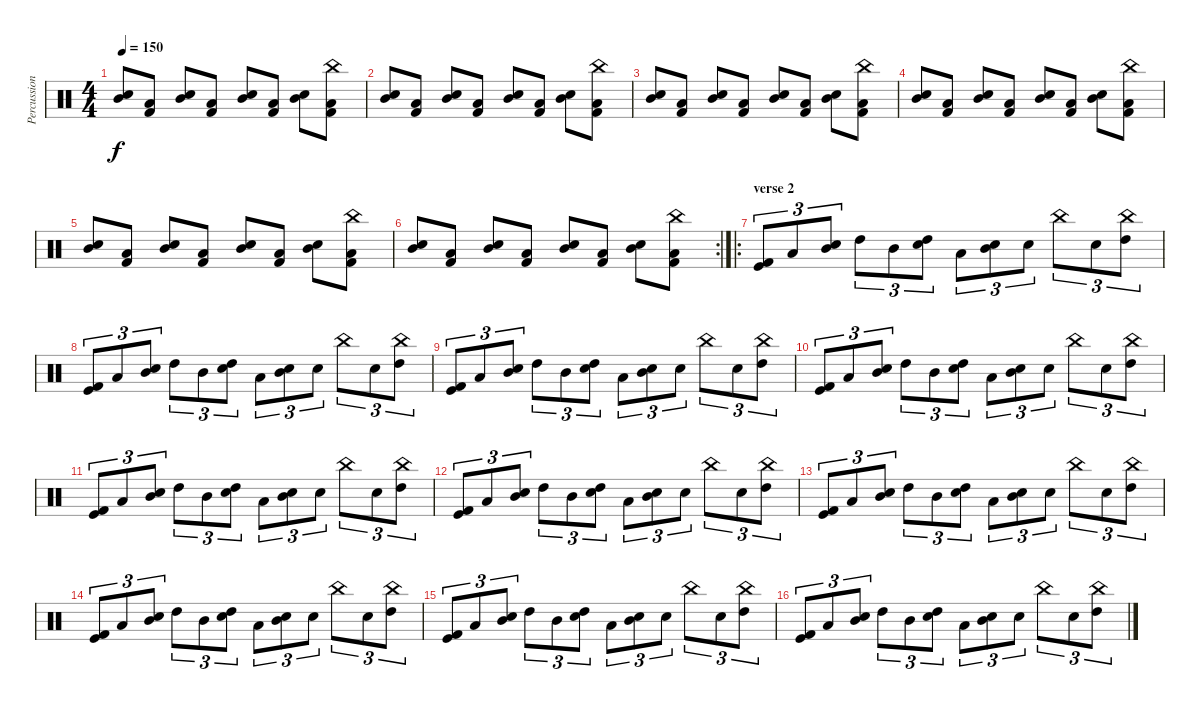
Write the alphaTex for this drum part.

\track ("Percussion" "Percussion") {instrument percussion}
\staff {score}
\articulation defaults
\ts (4 4)
\tempo 150
\clef neutral
\ks c
("Snare (hit) 2" "Mid Tom (hit)").8{dy f} ("Low Tom (hit)" "Kick (hit) 2").8 ("Snare (hit) 2" "Mid Tom (hit)").8 ("Low Tom (hit)" "Kick (hit) 2").8 ("Snare (hit) 2" "Mid Tom (hit)").8 ("Low Tom (hit)" "Kick (hit) 2").8 ("Snare (hit) 2" "Mid Tom (hit)").8 ("China (hit)" "Low Tom (hit)" "Kick (hit) 2").8 |
("Snare (hit) 2" "Mid Tom (hit)").8 ("Low Tom (hit)" "Kick (hit) 2").8 ("Snare (hit) 2" "Mid Tom (hit)").8 ("Low Tom (hit)" "Kick (hit) 2").8 ("Snare (hit) 2" "Mid Tom (hit)").8 ("Low Tom (hit)" "Kick (hit) 2").8 ("Snare (hit) 2" "Mid Tom (hit)").8 ("China (hit)" "Low Tom (hit)" "Kick (hit) 2").8 |
("Snare (hit) 2" "Mid Tom (hit)").8 ("Low Tom (hit)" "Kick (hit) 2").8 ("Snare (hit) 2" "Mid Tom (hit)").8 ("Low Tom (hit)" "Kick (hit) 2").8 ("Snare (hit) 2" "Mid Tom (hit)").8 ("Low Tom (hit)" "Kick (hit) 2").8 ("Snare (hit) 2" "Mid Tom (hit)").8 ("China (hit)" "Low Tom (hit)" "Kick (hit) 2").8 |
("Snare (hit) 2" "Mid Tom (hit)").8 ("Low Tom (hit)" "Kick (hit) 2").8 ("Snare (hit) 2" "Mid Tom (hit)").8 ("Low Tom (hit)" "Kick (hit) 2").8 ("Snare (hit) 2" "Mid Tom (hit)").8 ("Low Tom (hit)" "Kick (hit) 2").8 ("Snare (hit) 2" "Mid Tom (hit)").8 ("China (hit)" "Low Tom (hit)" "Kick (hit) 2").8 |
("Snare (hit) 2" "Mid Tom (hit)").8 ("Low Tom (hit)" "Kick (hit) 2").8 ("Snare (hit) 2" "Mid Tom (hit)").8 ("Low Tom (hit)" "Kick (hit) 2").8 ("Snare (hit) 2" "Mid Tom (hit)").8 ("Low Tom (hit)" "Kick (hit) 2").8 ("Snare (hit) 2" "Mid Tom (hit)").8 ("China (hit)" "Low Tom (hit)" "Kick (hit) 2").8 |
\rc 2
("Snare (hit) 2" "Mid Tom (hit)").8 ("Low Tom (hit)" "Kick (hit) 2").8 ("Snare (hit) 2" "Mid Tom (hit)").8 ("Low Tom (hit)" "Kick (hit) 2").8 ("Snare (hit) 2" "Mid Tom (hit)").8 ("Low Tom (hit)" "Kick (hit) 2").8 ("Snare (hit) 2" "Mid Tom (hit)").8 ("China (hit)" "Low Tom (hit)" "Kick (hit) 2").8 |
\ro
\section ("" "verse 2")
("Kick (hit) 2" "Kick (hit)").8{tu (3 2)} "Low Tom (hit)".8{tu (3 2)} ("Mid Tom (hit)" "Snare (hit) 2").8{tu (3 2)} "High Tom (hit)".8{tu (3 2)} "Mid Tom (hit)".8{tu (3 2)} ("High Tom (hit)" "Snare (hit) 2").8{tu (3 2)} "Low Tom (hit)".8{tu (3 2)} ("Mid Tom (hit)" "Snare (hit) 2").8{tu (3 2)} "Snare (hit) 2".8{tu (3 2)} "China (hit)".8{tu (3 2)} "Snare (hit) 2".8{tu (3 2)} ("High Tom (hit)" "China (hit)").8{tu (3 2)} |
("Kick (hit) 2" "Kick (hit)").8{tu (3 2)} "Low Tom (hit)".8{tu (3 2)} ("Mid Tom (hit)" "Snare (hit) 2").8{tu (3 2)} "High Tom (hit)".8{tu (3 2)} "Mid Tom (hit)".8{tu (3 2)} ("High Tom (hit)" "Snare (hit) 2").8{tu (3 2)} "Low Tom (hit)".8{tu (3 2)} ("Mid Tom (hit)" "Snare (hit) 2").8{tu (3 2)} "Snare (hit) 2".8{tu (3 2)} "China (hit)".8{tu (3 2)} "Snare (hit) 2".8{tu (3 2)} ("High Tom (hit)" "China (hit)").8{tu (3 2)} |
("Kick (hit) 2" "Kick (hit)").8{tu (3 2)} "Low Tom (hit)".8{tu (3 2)} ("Mid Tom (hit)" "Snare (hit) 2").8{tu (3 2)} "High Tom (hit)".8{tu (3 2)} "Mid Tom (hit)".8{tu (3 2)} ("High Tom (hit)" "Snare (hit) 2").8{tu (3 2)} "Low Tom (hit)".8{tu (3 2)} ("Mid Tom (hit)" "Snare (hit) 2").8{tu (3 2)} "Snare (hit) 2".8{tu (3 2)} "China (hit)".8{tu (3 2)} "Snare (hit) 2".8{tu (3 2)} ("High Tom (hit)" "China (hit)").8{tu (3 2)} |
("Kick (hit) 2" "Kick (hit)").8{tu (3 2)} "Low Tom (hit)".8{tu (3 2)} ("Mid Tom (hit)" "Snare (hit) 2").8{tu (3 2)} "High Tom (hit)".8{tu (3 2)} "Mid Tom (hit)".8{tu (3 2)} ("High Tom (hit)" "Snare (hit) 2").8{tu (3 2)} "Low Tom (hit)".8{tu (3 2)} ("Mid Tom (hit)" "Snare (hit) 2").8{tu (3 2)} "Snare (hit) 2".8{tu (3 2)} "China (hit)".8{tu (3 2)} "Snare (hit) 2".8{tu (3 2)} ("High Tom (hit)" "China (hit)").8{tu (3 2)} |
("Kick (hit) 2" "Kick (hit)").8{tu (3 2)} "Low Tom (hit)".8{tu (3 2)} ("Mid Tom (hit)" "Snare (hit) 2").8{tu (3 2)} "High Tom (hit)".8{tu (3 2)} "Mid Tom (hit)".8{tu (3 2)} ("High Tom (hit)" "Snare (hit) 2").8{tu (3 2)} "Low Tom (hit)".8{tu (3 2)} ("Mid Tom (hit)" "Snare (hit) 2").8{tu (3 2)} "Snare (hit) 2".8{tu (3 2)} "China (hit)".8{tu (3 2)} "Snare (hit) 2".8{tu (3 2)} ("High Tom (hit)" "China (hit)").8{tu (3 2)} |
("Kick (hit) 2" "Kick (hit)").8{tu (3 2)} "Low Tom (hit)".8{tu (3 2)} ("Mid Tom (hit)" "Snare (hit) 2").8{tu (3 2)} "High Tom (hit)".8{tu (3 2)} "Mid Tom (hit)".8{tu (3 2)} ("High Tom (hit)" "Snare (hit) 2").8{tu (3 2)} "Low Tom (hit)".8{tu (3 2)} ("Mid Tom (hit)" "Snare (hit) 2").8{tu (3 2)} "Snare (hit) 2".8{tu (3 2)} "China (hit)".8{tu (3 2)} "Snare (hit) 2".8{tu (3 2)} ("High Tom (hit)" "China (hit)").8{tu (3 2)} |
("Kick (hit) 2" "Kick (hit)").8{tu (3 2)} "Low Tom (hit)".8{tu (3 2)} ("Mid Tom (hit)" "Snare (hit) 2").8{tu (3 2)} "High Tom (hit)".8{tu (3 2)} "Mid Tom (hit)".8{tu (3 2)} ("High Tom (hit)" "Snare (hit) 2").8{tu (3 2)} "Low Tom (hit)".8{tu (3 2)} ("Mid Tom (hit)" "Snare (hit) 2").8{tu (3 2)} "Snare (hit) 2".8{tu (3 2)} "China (hit)".8{tu (3 2)} "Snare (hit) 2".8{tu (3 2)} ("High Tom (hit)" "China (hit)").8{tu (3 2)} |
("Kick (hit) 2" "Kick (hit)").8{tu (3 2)} "Low Tom (hit)".8{tu (3 2)} ("Mid Tom (hit)" "Snare (hit) 2").8{tu (3 2)} "High Tom (hit)".8{tu (3 2)} "Mid Tom (hit)".8{tu (3 2)} ("High Tom (hit)" "Snare (hit) 2").8{tu (3 2)} "Low Tom (hit)".8{tu (3 2)} ("Mid Tom (hit)" "Snare (hit) 2").8{tu (3 2)} "Snare (hit) 2".8{tu (3 2)} "China (hit)".8{tu (3 2)} "Snare (hit) 2".8{tu (3 2)} ("High Tom (hit)" "China (hit)").8{tu (3 2)} |
("Kick (hit) 2" "Kick (hit)").8{tu (3 2)} "Low Tom (hit)".8{tu (3 2)} ("Mid Tom (hit)" "Snare (hit) 2").8{tu (3 2)} "High Tom (hit)".8{tu (3 2)} "Mid Tom (hit)".8{tu (3 2)} ("High Tom (hit)" "Snare (hit) 2").8{tu (3 2)} "Low Tom (hit)".8{tu (3 2)} ("Mid Tom (hit)" "Snare (hit) 2").8{tu (3 2)} "Snare (hit) 2".8{tu (3 2)} "China (hit)".8{tu (3 2)} "Snare (hit) 2".8{tu (3 2)} ("High Tom (hit)" "China (hit)").8{tu (3 2)} |
("Kick (hit) 2" "Kick (hit)").8{tu (3 2)} "Low Tom (hit)".8{tu (3 2)} ("Mid Tom (hit)" "Snare (hit) 2").8{tu (3 2)} "High Tom (hit)".8{tu (3 2)} "Mid Tom (hit)".8{tu (3 2)} ("High Tom (hit)" "Snare (hit) 2").8{tu (3 2)} "Low Tom (hit)".8{tu (3 2)} ("Mid Tom (hit)" "Snare (hit) 2").8{tu (3 2)} "Snare (hit) 2".8{tu (3 2)} "China (hit)".8{tu (3 2)} "Snare (hit) 2".8{tu (3 2)} ("High Tom (hit)" "China (hit)").8{tu (3 2)}
